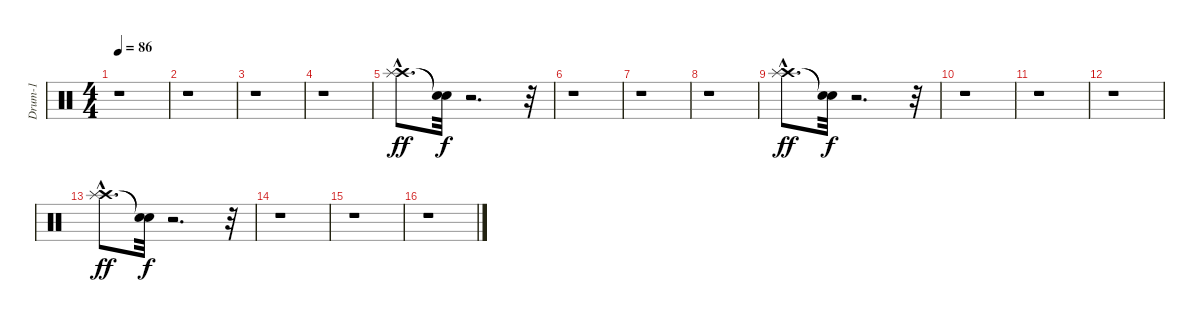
\track ("Drum-1" "Drum-1") {instrument percussion}
\staff {score}
\articulation defaults
\ts (4 4)
\tempo 86
\clef neutral
\ks c
r.1{dy ff} |
r.1 |
r.1 |
r.1 |
("Crash high (hit)"{hac} "Splash (hit)"{hac}).8{d} ("Snare (hit)"{t} "Snare (hit)"{t}).32{dy f} r.2{d} r.32 |
r.1 |
r.1 |
r.1 |
("Crash high (hit)"{hac} "Splash (hit)"{hac}).8{d dy ff} ("Snare (hit)"{t} "Snare (hit)"{t}).32{dy f} r.2{d} r.32 |
r.1 |
r.1 |
r.1 |
("Crash high (hit)"{hac} "Splash (hit)"{hac}).8{d dy ff} ("Snare (hit)"{t} "Snare (hit)"{t}).32{dy f} r.2{d} r.32 |
r.1 |
r.1 |
r.1
